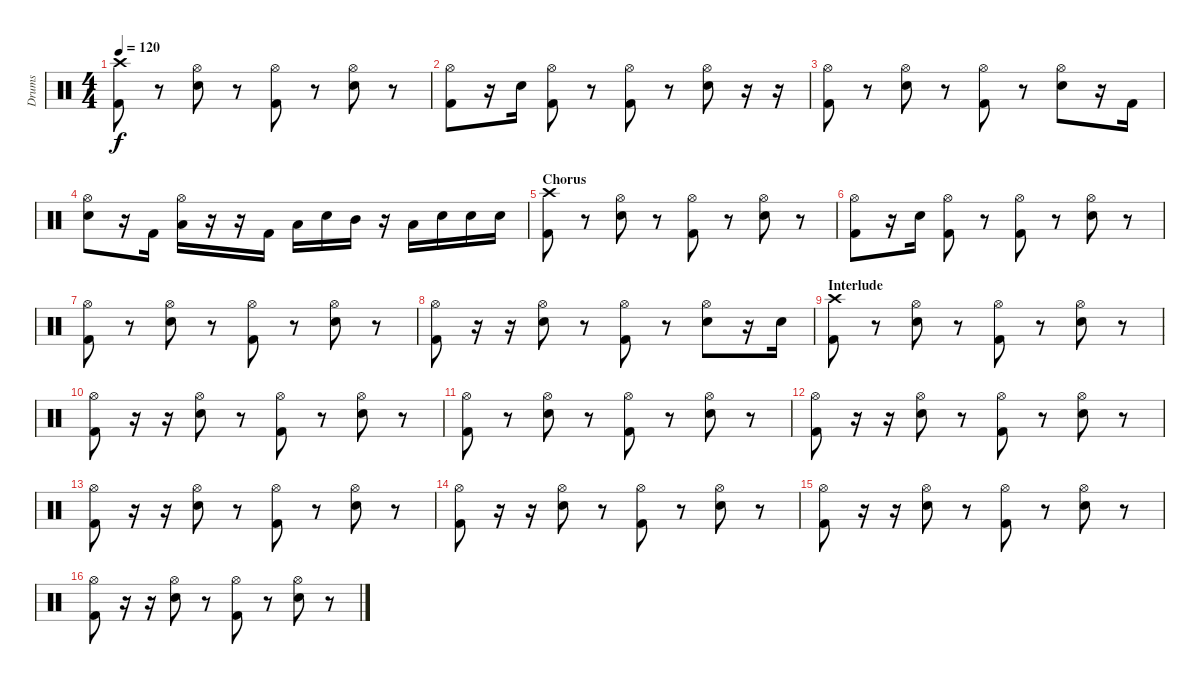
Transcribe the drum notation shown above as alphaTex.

\track ("Drums" "Drums") {instrument percussion}
\staff {score}
\articulation defaults
\ts (4 4)
\tempo 120
\clef neutral
\ks c
("Crash high (hit)" "Kick (hit) 2").8{dy f} r.8 ("Hi-Hat (open)" "Electric Snare (hit)").8 r.8 ("Hi-Hat (open)" "Kick (hit) 2").8 r.8 ("Hi-Hat (open)" "Electric Snare (hit)").8 r.8 |
("Hi-Hat (open)" "Kick (hit) 2").8 r.16 "Electric Snare (hit)".16 ("Hi-Hat (open)" "Kick (hit) 2").8 r.8 ("Hi-Hat (open)" "Kick (hit) 2").8 r.8 ("Hi-Hat (open)" "Electric Snare (hit)").8 r.16 r.16 |
("Hi-Hat (open)" "Kick (hit) 2").8 r.8 ("Hi-Hat (open)" "Electric Snare (hit)").8 r.8 ("Hi-Hat (open)" "Kick (hit) 2").8 r.8 ("Hi-Hat (open)" "Electric Snare (hit)").8 r.16 "Kick (hit) 2".16 |
("Hi-Hat (open)" "Electric Snare (hit)").8 r.16 "Kick (hit) 2".16 ("Hi-Hat (open)" "Low Tom (hit)").16 r.16 r.16 "Kick (hit) 2".16 "Low Tom (hit)".16 "Electric Snare (hit)".16 "Mid Tom (hit)".16 r.16 "Low Tom (hit)".16 "Electric Snare (hit)".16 "Electric Snare (hit)".16 "Electric Snare (hit)".16 |
\section ("" "Chorus")
("Crash high (hit)" "Kick (hit) 2").8 r.8 ("Hi-Hat (open)" "Electric Snare (hit)").8 r.8 ("Hi-Hat (open)" "Kick (hit) 2").8 r.8 ("Hi-Hat (open)" "Electric Snare (hit)").8 r.8 |
("Hi-Hat (open)" "Kick (hit) 2").8 r.16 "Electric Snare (hit)".16 ("Hi-Hat (open)" "Kick (hit) 2").8 r.8 ("Hi-Hat (open)" "Kick (hit) 2").8 r.8 ("Hi-Hat (open)" "Electric Snare (hit)").8 r.8 |
("Hi-Hat (open)" "Kick (hit) 2").8 r.8 ("Hi-Hat (open)" "Electric Snare (hit)").8 r.8 ("Hi-Hat (open)" "Kick (hit) 2").8 r.8 ("Hi-Hat (open)" "Electric Snare (hit)").8 r.8 |
("Hi-Hat (open)" "Kick (hit) 2").8 r.16 r.16 ("Hi-Hat (open)" "Electric Snare (hit)").8 r.8 ("Hi-Hat (open)" "Kick (hit) 2").8 r.8 ("Hi-Hat (open)" "Electric Snare (hit)").8 r.16 "Electric Snare (hit)".16 |
\section ("" "Interlude")
("Crash high (hit)" "Kick (hit) 2").8 r.8 ("Hi-Hat (open)" "Electric Snare (hit)").8 r.8 ("Hi-Hat (open)" "Kick (hit) 2").8 r.8 ("Hi-Hat (open)" "Electric Snare (hit)").8 r.8 |
("Hi-Hat (open)" "Kick (hit) 2").8 r.16 r.16 ("Hi-Hat (open)" "Electric Snare (hit)").8 r.8 ("Hi-Hat (open)" "Kick (hit) 2").8 r.8 ("Hi-Hat (open)" "Electric Snare (hit)").8 r.8 |
("Hi-Hat (open)" "Kick (hit) 2").8 r.8 ("Hi-Hat (open)" "Electric Snare (hit)").8 r.8 ("Hi-Hat (open)" "Kick (hit) 2").8 r.8 ("Hi-Hat (open)" "Electric Snare (hit)").8 r.8 |
("Hi-Hat (open)" "Kick (hit) 2").8 r.16 r.16 ("Hi-Hat (open)" "Electric Snare (hit)").8 r.8 ("Hi-Hat (open)" "Kick (hit) 2").8 r.8 ("Hi-Hat (open)" "Electric Snare (hit)").8 r.8 |
("Hi-Hat (open)" "Kick (hit) 2").8 r.16 r.16 ("Hi-Hat (open)" "Electric Snare (hit)").8 r.8 ("Hi-Hat (open)" "Kick (hit) 2").8 r.8 ("Hi-Hat (open)" "Electric Snare (hit)").8 r.8 |
("Hi-Hat (open)" "Kick (hit) 2").8 r.16 r.16 ("Hi-Hat (open)" "Electric Snare (hit)").8 r.8 ("Hi-Hat (open)" "Kick (hit) 2").8 r.8 ("Hi-Hat (open)" "Electric Snare (hit)").8 r.8 |
("Hi-Hat (open)" "Kick (hit) 2").8 r.16 r.16 ("Hi-Hat (open)" "Electric Snare (hit)").8 r.8 ("Hi-Hat (open)" "Kick (hit) 2").8 r.8 ("Hi-Hat (open)" "Electric Snare (hit)").8 r.8 |
("Hi-Hat (open)" "Kick (hit) 2").8 r.16 r.16 ("Hi-Hat (open)" "Electric Snare (hit)").8 r.8 ("Hi-Hat (open)" "Kick (hit) 2").8 r.8 ("Hi-Hat (open)" "Electric Snare (hit)").8 r.8
